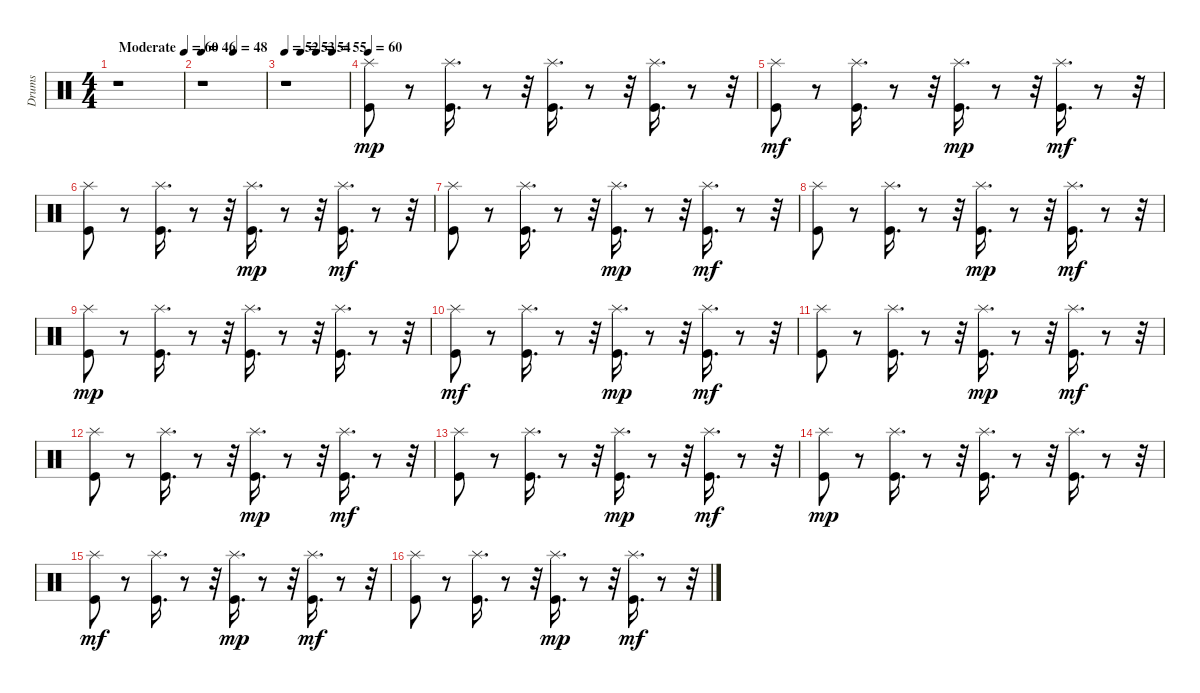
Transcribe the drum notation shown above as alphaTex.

\track ("Drums" "Drums") {instrument percussion}
\staff {score}
\articulation defaults
\ts (4 4)
\tempo (60 "Moderate")
\clef neutral
\ks c
r.1{dy mp} |
\tempo 46
\tempo (48 0.5)
r.1 |
\tempo 52
\tempo (53 0.25)
\tempo (54 0.5)
\tempo (55 0.75)
r.1 |
\tempo 60
("Splash (hit)" "Kick (hit)").8 r.8 ("Kick (hit)" "Splash (hit)").16{d} r.8 r.32 ("Splash (hit)" "Kick (hit)").16{d} r.8 r.32 ("Kick (hit)" "Splash (hit)").16{d} r.8 r.32 |
("Splash (hit)" "Kick (hit)").8{dy mf} r.8 ("Kick (hit)" "Splash (hit)").16{d} r.8 r.32 ("Splash (hit)" "Kick (hit)").16{d dy mp} r.8 r.32 ("Kick (hit)" "Splash (hit)").16{d dy mf} r.8 r.32 |
("Splash (hit)" "Kick (hit)").8 r.8 ("Kick (hit)" "Splash (hit)").16{d} r.8 r.32 ("Splash (hit)" "Kick (hit)").16{d dy mp} r.8 r.32 ("Kick (hit)" "Splash (hit)").16{d dy mf} r.8 r.32 |
("Splash (hit)" "Kick (hit)").8 r.8 ("Kick (hit)" "Splash (hit)").16{d} r.8 r.32 ("Splash (hit)" "Kick (hit)").16{d dy mp} r.8 r.32 ("Kick (hit)" "Splash (hit)").16{d dy mf} r.8 r.32 |
("Splash (hit)" "Kick (hit)").8 r.8 ("Kick (hit)" "Splash (hit)").16{d} r.8 r.32 ("Splash (hit)" "Kick (hit)").16{d dy mp} r.8 r.32 ("Kick (hit)" "Splash (hit)").16{d dy mf} r.8 r.32 |
("Splash (hit)" "Kick (hit)").8{dy mp} r.8 ("Kick (hit)" "Splash (hit)").16{d} r.8 r.32 ("Splash (hit)" "Kick (hit)").16{d} r.8 r.32 ("Kick (hit)" "Splash (hit)").16{d} r.8 r.32 |
("Splash (hit)" "Kick (hit)").8{dy mf} r.8 ("Kick (hit)" "Splash (hit)").16{d} r.8 r.32 ("Splash (hit)" "Kick (hit)").16{d dy mp} r.8 r.32 ("Kick (hit)" "Splash (hit)").16{d dy mf} r.8 r.32 |
("Splash (hit)" "Kick (hit)").8 r.8 ("Kick (hit)" "Splash (hit)").16{d} r.8 r.32 ("Splash (hit)" "Kick (hit)").16{d dy mp} r.8 r.32 ("Kick (hit)" "Splash (hit)").16{d dy mf} r.8 r.32 |
("Splash (hit)" "Kick (hit)").8 r.8 ("Kick (hit)" "Splash (hit)").16{d} r.8 r.32 ("Splash (hit)" "Kick (hit)").16{d dy mp} r.8 r.32 ("Kick (hit)" "Splash (hit)").16{d dy mf} r.8 r.32 |
("Splash (hit)" "Kick (hit)").8 r.8 ("Kick (hit)" "Splash (hit)").16{d} r.8 r.32 ("Splash (hit)" "Kick (hit)").16{d dy mp} r.8 r.32 ("Kick (hit)" "Splash (hit)").16{d dy mf} r.8 r.32 |
("Splash (hit)" "Kick (hit)").8{dy mp} r.8 ("Kick (hit)" "Splash (hit)").16{d} r.8 r.32 ("Splash (hit)" "Kick (hit)").16{d} r.8 r.32 ("Kick (hit)" "Splash (hit)").16{d} r.8 r.32 |
("Splash (hit)" "Kick (hit)").8{dy mf} r.8 ("Kick (hit)" "Splash (hit)").16{d} r.8 r.32 ("Splash (hit)" "Kick (hit)").16{d dy mp} r.8 r.32 ("Kick (hit)" "Splash (hit)").16{d dy mf} r.8 r.32 |
("Splash (hit)" "Kick (hit)").8 r.8 ("Kick (hit)" "Splash (hit)").16{d} r.8 r.32 ("Splash (hit)" "Kick (hit)").16{d dy mp} r.8 r.32 ("Kick (hit)" "Splash (hit)").16{d dy mf} r.8 r.32
